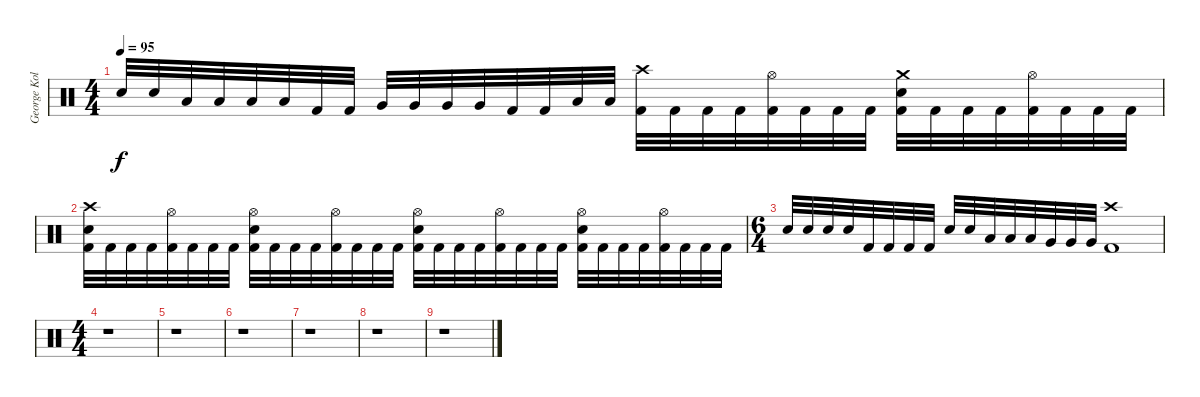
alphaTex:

\track ("George Kollias" "George Kol") {instrument percussion}
\staff {score}
\articulation defaults
\ts (4 4)
\tempo 95
\clef neutral
\ks c "Snare (hit) 2".32{dy f} "Snare (hit) 2".32 "Low Tom (hit)".32 "Low Tom (hit)".32 "Low Tom (hit)".32 "Low Tom (hit)".32 "Kick (hit) 2".32 "Kick (hit) 2".32 "Very Low Tom (hit)".32 "Very Low Tom (hit)".32 "Very Low Tom (hit)".32 "Very Low Tom (hit)".32 "Kick (hit) 2".32 "Kick (hit) 2".32 "Low Floor Tom (hit)".32 "Low Floor Tom (hit)".32
("Crash high (hit)" "Kick (hit) 2").32 "Kick (hit) 2".32 "Kick (hit) 2".32 "Kick (hit) 2".32 ("Hi-Hat (open)" "Kick (hit) 2").32 "Kick (hit) 2".32 "Kick (hit) 2".32 "Kick (hit) 2".32 ("Crash medium (hit)" "Snare (hit) 2" "Kick (hit) 2").32 "Kick (hit) 2".32 "Kick (hit) 2".32 "Kick (hit) 2".32 ("Hi-Hat (open)" "Kick (hit) 2").32 "Kick (hit) 2".32 "Kick (hit) 2".32 "Kick (hit) 2".32 |
("Crash high (hit)" "Snare (hit) 2" "Kick (hit) 2").32 "Kick (hit) 2".32 "Kick (hit) 2".32 "Kick (hit) 2".32 ("Hi-Hat (open)" "Kick (hit) 2").32 "Kick (hit) 2".32 "Kick (hit) 2".32 "Kick (hit) 2".32 ("Hi-Hat (open)" "Snare (hit) 2" "Kick (hit) 2").32 "Kick (hit) 2".32 "Kick (hit) 2".32 "Kick (hit) 2".32 ("Hi-Hat (open)" "Kick (hit) 2").32 "Kick (hit) 2".32 "Kick (hit) 2".32 "Kick (hit) 2".32 ("Hi-Hat (open)" "Snare (hit) 2" "Kick (hit) 2").32 "Kick (hit) 2".32 "Kick (hit) 2".32 "Kick (hit) 2".32 ("Hi-Hat (open)" "Kick (hit) 2").32 "Kick (hit) 2".32 "Kick (hit) 2".32 "Kick (hit) 2".32 ("Hi-Hat (open)" "Snare (hit) 2" "Kick (hit) 2").32 "Kick (hit) 2".32 "Kick (hit) 2".32 "Kick (hit) 2".32 ("Hi-Hat (open)" "Kick (hit) 2").32 "Kick (hit) 2".32 "Kick (hit) 2".32 "Kick (hit) 2".32 |
\ts (6 4)
"Snare (hit) 2".32 "Snare (hit) 2".32 "Snare (hit) 2".32 "Snare (hit) 2".32 "Kick (hit) 2".32 "Kick (hit) 2".32 "Kick (hit) 2".32 "Kick (hit) 2".32 "Snare (hit) 2".32 "Snare (hit) 2".32 "Low Tom (hit)".32 "Low Tom (hit)".32 "Low Tom (hit)".32 "Very Low Tom (hit)".32 "Very Low Tom (hit)".32 "Very Low Tom (hit)".32 ("Crash high (hit)" "Kick (hit) 2").1 |
\ts (4 4)
r.1 |
r.1 |
r.1 |
r.1 |
r.1 |
r.1
